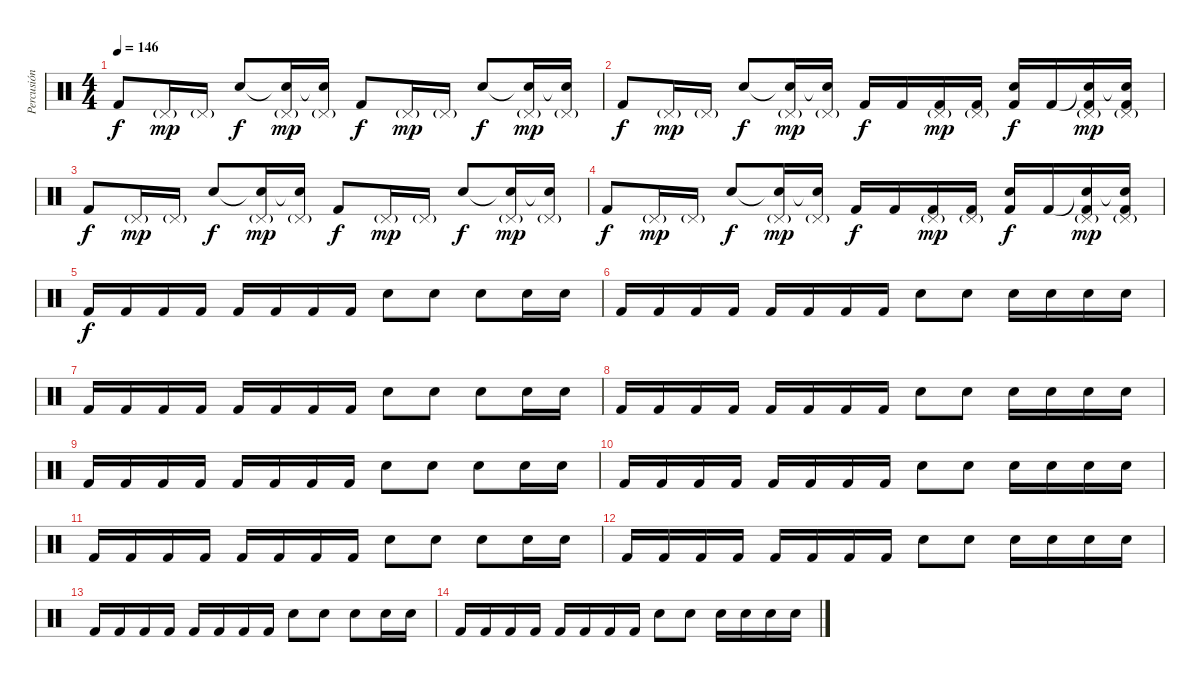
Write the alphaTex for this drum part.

\track ("Percusión" "Percusión") {instrument percussion}
\staff {score}
\articulation defaults
\ts (4 4)
\tempo 146
\clef neutral
\ks c "Kick (hit) 2".8{dy f} "Pedal Hi-Hat (hit)"{g}.16{dy mp} "Pedal Hi-Hat (hit)"{g}.16 "Snare (hit) 2".8{dy f}
("Snare (hit)"{t} "Pedal Hi-Hat (hit)"{g}).16{dy mp} ("Snare (hit)"{t} "Pedal Hi-Hat (hit)"{g}).16 "Kick (hit) 2".8{dy f} "Pedal Hi-Hat (hit)"{g}.16{dy mp} "Pedal Hi-Hat (hit)"{g}.16 "Snare (hit) 2".8{dy f} ("Snare (hit)"{t} "Pedal Hi-Hat (hit)"{g}).16{dy mp} ("Snare (hit)"{t} "Pedal Hi-Hat (hit)"{g}).16 |
"Kick (hit) 2".8{dy f} "Pedal Hi-Hat (hit)"{g}.16{dy mp} "Pedal Hi-Hat (hit)"{g}.16 "Snare (hit) 2".8{dy f} ("Snare (hit)"{t} "Pedal Hi-Hat (hit)"{g}).16{dy mp} ("Snare (hit)"{t} "Pedal Hi-Hat (hit)"{g}).16 "Kick (hit) 2".16{dy f} "Kick (hit) 2".16 ("Pedal Hi-Hat (hit)"{g} "Kick (hit) 2").16{dy mp} ("Pedal Hi-Hat (hit)"{g} "Kick (hit) 2").16 ("Snare (hit) 2" "Kick (hit) 2").16{dy f} "Kick (hit) 2".16 ("Snare (hit)"{t} "Pedal Hi-Hat (hit)"{g} "Kick (hit) 2").16{dy mp} ("Snare (hit)"{t} "Pedal Hi-Hat (hit)"{g} "Kick (hit) 2").16 |
"Kick (hit) 2".8{dy f} "Pedal Hi-Hat (hit)"{g}.16{dy mp} "Pedal Hi-Hat (hit)"{g}.16 "Snare (hit) 2".8{dy f} ("Snare (hit)"{t} "Pedal Hi-Hat (hit)"{g}).16{dy mp} ("Snare (hit)"{t} "Pedal Hi-Hat (hit)"{g}).16 "Kick (hit) 2".8{dy f} "Pedal Hi-Hat (hit)"{g}.16{dy mp} "Pedal Hi-Hat (hit)"{g}.16 "Snare (hit) 2".8{dy f} ("Snare (hit)"{t} "Pedal Hi-Hat (hit)"{g}).16{dy mp} ("Snare (hit)"{t} "Pedal Hi-Hat (hit)"{g}).16 |
"Kick (hit) 2".8{dy f} "Pedal Hi-Hat (hit)"{g}.16{dy mp} "Pedal Hi-Hat (hit)"{g}.16 "Snare (hit) 2".8{dy f} ("Snare (hit)"{t} "Pedal Hi-Hat (hit)"{g}).16{dy mp} ("Snare (hit)"{t} "Pedal Hi-Hat (hit)"{g}).16 "Kick (hit) 2".16{dy f} "Kick (hit) 2".16 ("Pedal Hi-Hat (hit)"{g} "Kick (hit) 2").16{dy mp} ("Pedal Hi-Hat (hit)"{g} "Kick (hit) 2").16 ("Snare (hit) 2" "Kick (hit) 2").16{dy f} "Kick (hit) 2".16 ("Snare (hit)"{t} "Pedal Hi-Hat (hit)"{g} "Kick (hit) 2").16{dy mp} ("Snare (hit)"{t} "Pedal Hi-Hat (hit)"{g} "Kick (hit) 2").16 |
"Kick (hit) 2".16{dy f} "Kick (hit) 2".16 "Kick (hit) 2".16 "Kick (hit) 2".16 "Kick (hit) 2".16 "Kick (hit) 2".16 "Kick (hit) 2".16 "Kick (hit) 2".16 "Snare (hit) 2".8 "Snare (hit) 2".8 "Snare (hit) 2".8 "Snare (hit) 2".16 "Snare (hit) 2".16 |
"Kick (hit) 2".16 "Kick (hit) 2".16 "Kick (hit) 2".16 "Kick (hit) 2".16 "Kick (hit) 2".16 "Kick (hit) 2".16 "Kick (hit) 2".16 "Kick (hit) 2".16 "Snare (hit) 2".8 "Snare (hit) 2".8 "Snare (hit) 2".16 "Snare (hit) 2".16 "Snare (hit) 2".16 "Snare (hit) 2".16 |
"Kick (hit) 2".16 "Kick (hit) 2".16 "Kick (hit) 2".16 "Kick (hit) 2".16 "Kick (hit) 2".16 "Kick (hit) 2".16 "Kick (hit) 2".16 "Kick (hit) 2".16 "Snare (hit) 2".8 "Snare (hit) 2".8 "Snare (hit) 2".8 "Snare (hit) 2".16 "Snare (hit) 2".16 |
"Kick (hit) 2".16 "Kick (hit) 2".16 "Kick (hit) 2".16 "Kick (hit) 2".16 "Kick (hit) 2".16 "Kick (hit) 2".16 "Kick (hit) 2".16 "Kick (hit) 2".16 "Snare (hit) 2".8 "Snare (hit) 2".8 "Snare (hit) 2".16 "Snare (hit) 2".16 "Snare (hit) 2".16 "Snare (hit) 2".16 |
"Kick (hit) 2".16 "Kick (hit) 2".16 "Kick (hit) 2".16 "Kick (hit) 2".16 "Kick (hit) 2".16 "Kick (hit) 2".16 "Kick (hit) 2".16 "Kick (hit) 2".16 "Snare (hit) 2".8 "Snare (hit) 2".8 "Snare (hit) 2".8 "Snare (hit) 2".16 "Snare (hit) 2".16 |
"Kick (hit) 2".16 "Kick (hit) 2".16 "Kick (hit) 2".16 "Kick (hit) 2".16 "Kick (hit) 2".16 "Kick (hit) 2".16 "Kick (hit) 2".16 "Kick (hit) 2".16 "Snare (hit) 2".8 "Snare (hit) 2".8 "Snare (hit) 2".16 "Snare (hit) 2".16 "Snare (hit) 2".16 "Snare (hit) 2".16 |
"Kick (hit) 2".16 "Kick (hit) 2".16 "Kick (hit) 2".16 "Kick (hit) 2".16 "Kick (hit) 2".16 "Kick (hit) 2".16 "Kick (hit) 2".16 "Kick (hit) 2".16 "Snare (hit) 2".8 "Snare (hit) 2".8 "Snare (hit) 2".8 "Snare (hit) 2".16 "Snare (hit) 2".16 |
"Kick (hit) 2".16{volume 1} "Kick (hit) 2".16 "Kick (hit) 2".16 "Kick (hit) 2".16 "Kick (hit) 2".16 "Kick (hit) 2".16 "Kick (hit) 2".16 "Kick (hit) 2".16 "Snare (hit) 2".8 "Snare (hit) 2".8 "Snare (hit) 2".16 "Snare (hit) 2".16 "Snare (hit) 2".16 "Snare (hit) 2".16 |
"Kick (hit) 2".16 "Kick (hit) 2".16 "Kick (hit) 2".16 "Kick (hit) 2".16 "Kick (hit) 2".16 "Kick (hit) 2".16 "Kick (hit) 2".16 "Kick (hit) 2".16 "Snare (hit) 2".8 "Snare (hit) 2".8 "Snare (hit) 2".8 "Snare (hit) 2".16 "Snare (hit) 2".16 |
"Kick (hit) 2".16 "Kick (hit) 2".16 "Kick (hit) 2".16 "Kick (hit) 2".16 "Kick (hit) 2".16 "Kick (hit) 2".16 "Kick (hit) 2".16 "Kick (hit) 2".16 "Snare (hit) 2".8 "Snare (hit) 2".8 "Snare (hit) 2".16 "Snare (hit) 2".16 "Snare (hit) 2".16 "Snare (hit) 2".16
